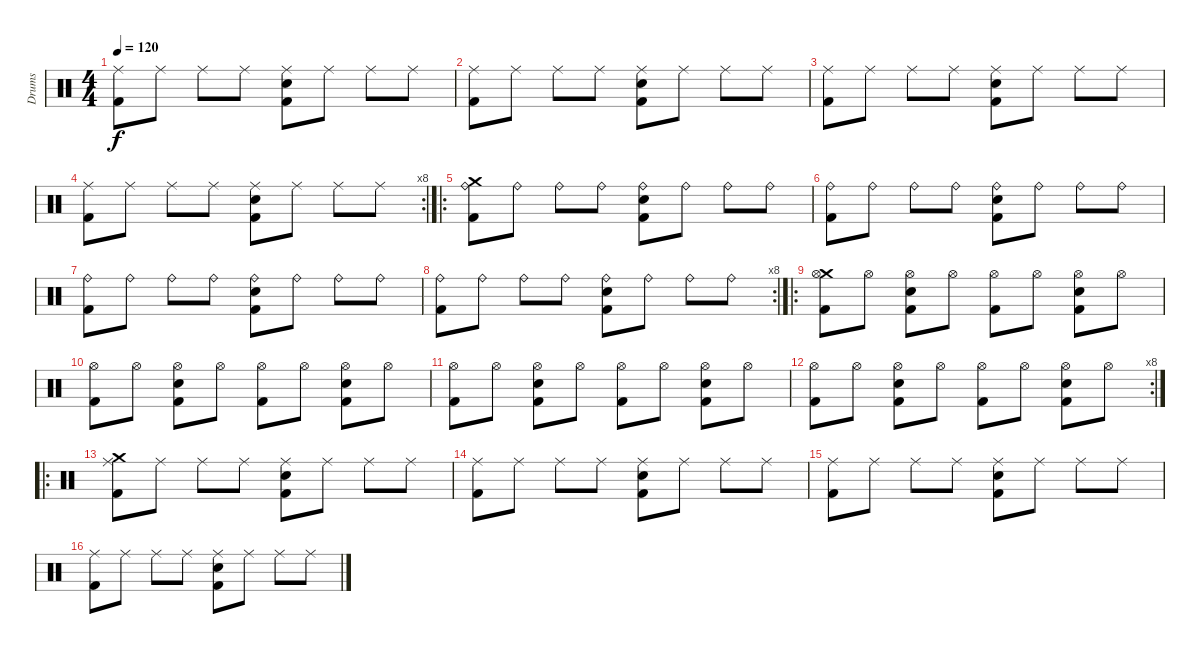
\track ("Drums" "Drums") {instrument percussion}
\staff {score}
\articulation defaults
\ts (4 4)
\tempo 120
\clef neutral
\ks c
("Ride (middle)" "Kick (hit) 2").8{dy f} "Ride (middle)".8 "Ride (middle)".8 "Ride (middle)".8 ("Ride (middle)" "Electric Snare (hit)" "Kick (hit) 2").8 "Ride (middle)".8 "Ride (middle)".8 "Ride (middle)".8 |
("Ride (middle)" "Kick (hit) 2").8 "Ride (middle)".8 "Ride (middle)".8 "Ride (middle)".8 ("Ride (middle)" "Electric Snare (hit)" "Kick (hit) 2").8 "Ride (middle)".8 "Ride (middle)".8 "Ride (middle)".8 |
("Ride (middle)" "Kick (hit) 2").8 "Ride (middle)".8 "Ride (middle)".8 "Ride (middle)".8 ("Ride (middle)" "Electric Snare (hit)" "Kick (hit) 2").8 "Ride (middle)".8 "Ride (middle)".8 "Ride (middle)".8 |
\rc 8
("Ride (middle)" "Kick (hit) 2").8 "Ride (middle)".8 "Ride (middle)".8 "Ride (middle)".8 ("Ride (middle)" "Electric Snare (hit)" "Kick (hit) 2").8 "Ride (middle)".8 "Ride (middle)".8 "Ride (middle)".8 |
\ro
("Crash medium (hit)" "Ride (bell)" "Kick (hit) 2").8 "Ride (bell)".8 "Ride (bell)".8 "Ride (bell)".8 ("Ride (bell)" "Electric Snare (hit)" "Kick (hit) 2").8 "Ride (bell)".8 "Ride (bell)".8 "Ride (bell)".8 |
("Ride (bell)" "Kick (hit) 2").8 "Ride (bell)".8 "Ride (bell)".8 "Ride (bell)".8 ("Ride (bell)" "Electric Snare (hit)" "Kick (hit) 2").8 "Ride (bell)".8 "Ride (bell)".8 "Ride (bell)".8 |
("Ride (bell)" "Kick (hit) 2").8 "Ride (bell)".8 "Ride (bell)".8 "Ride (bell)".8 ("Ride (bell)" "Electric Snare (hit)" "Kick (hit) 2").8 "Ride (bell)".8 "Ride (bell)".8 "Ride (bell)".8 |
\rc 8
("Ride (bell)" "Kick (hit) 2").8 "Ride (bell)".8 "Ride (bell)".8 "Ride (bell)".8 ("Ride (bell)" "Electric Snare (hit)" "Kick (hit) 2").8 "Ride (bell)".8 "Ride (bell)".8 "Ride (bell)".8 |
\ro
("Crash medium (hit)" "Hi-Hat (open)" "Kick (hit) 2").8 "Hi-Hat (open)".8 ("Hi-Hat (open)" "Electric Snare (hit)" "Kick (hit) 2").8 "Hi-Hat (open)".8 ("Hi-Hat (open)" "Kick (hit) 2").8 "Hi-Hat (open)".8 ("Hi-Hat (open)" "Electric Snare (hit)" "Kick (hit) 2").8 "Hi-Hat (open)".8 |
("Hi-Hat (open)" "Kick (hit) 2").8 "Hi-Hat (open)".8 ("Hi-Hat (open)" "Electric Snare (hit)" "Kick (hit) 2").8 "Hi-Hat (open)".8 ("Hi-Hat (open)" "Kick (hit) 2").8 "Hi-Hat (open)".8 ("Hi-Hat (open)" "Electric Snare (hit)" "Kick (hit) 2").8 "Hi-Hat (open)".8 |
("Hi-Hat (open)" "Kick (hit) 2").8 "Hi-Hat (open)".8 ("Hi-Hat (open)" "Electric Snare (hit)" "Kick (hit) 2").8 "Hi-Hat (open)".8 ("Hi-Hat (open)" "Kick (hit) 2").8 "Hi-Hat (open)".8 ("Hi-Hat (open)" "Electric Snare (hit)" "Kick (hit) 2").8 "Hi-Hat (open)".8 |
\rc 8
("Hi-Hat (open)" "Kick (hit) 2").8 "Hi-Hat (open)".8 ("Hi-Hat (open)" "Electric Snare (hit)" "Kick (hit) 2").8 "Hi-Hat (open)".8 ("Hi-Hat (open)" "Kick (hit) 2").8 "Hi-Hat (open)".8 ("Hi-Hat (open)" "Electric Snare (hit)" "Kick (hit) 2").8 "Hi-Hat (open)".8 |
\ro
("Crash medium (hit)" "Ride (middle)" "Kick (hit) 2").8 "Ride (middle)".8 "Ride (middle)".8 "Ride (middle)".8 ("Ride (middle)" "Electric Snare (hit)" "Kick (hit) 2").8 "Ride (middle)".8 "Ride (middle)".8 "Ride (middle)".8 |
("Ride (middle)" "Kick (hit) 2").8 "Ride (middle)".8 "Ride (middle)".8 "Ride (middle)".8 ("Ride (middle)" "Electric Snare (hit)" "Kick (hit) 2").8 "Ride (middle)".8 "Ride (middle)".8 "Ride (middle)".8 |
("Ride (middle)" "Kick (hit) 2").8 "Ride (middle)".8 "Ride (middle)".8 "Ride (middle)".8 ("Ride (middle)" "Electric Snare (hit)" "Kick (hit) 2").8 "Ride (middle)".8 "Ride (middle)".8 "Ride (middle)".8 |
("Ride (middle)" "Kick (hit) 2").8 "Ride (middle)".8 "Ride (middle)".8 "Ride (middle)".8 ("Ride (middle)" "Electric Snare (hit)" "Kick (hit) 2").8 "Ride (middle)".8 "Ride (middle)".8 "Ride (middle)".8
